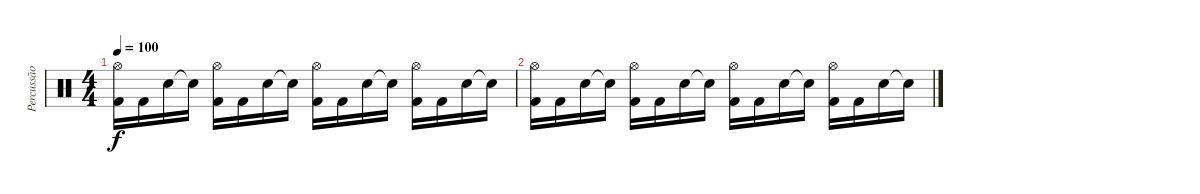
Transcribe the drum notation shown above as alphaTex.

\track ("Percussão" "Percussão") {instrument percussion}
\staff {score}
\articulation defaults
\ts (4 4)
\tempo 100
\clef neutral
\ks c
("Kick (hit) 2" "Hi-Hat (open)").16{dy f} "Kick (hit) 2".16 "Electric Snare (hit)".16 "Snare (hit)"{t}.16 ("Kick (hit) 2" "Hi-Hat (open)").16 "Kick (hit) 2".16 "Electric Snare (hit)".16 "Snare (hit)"{t}.16 ("Kick (hit) 2" "Hi-Hat (open)").16 "Kick (hit) 2".16 "Electric Snare (hit)".16 "Snare (hit)"{t}.16 ("Kick (hit) 2" "Hi-Hat (open)").16 "Kick (hit) 2".16 "Electric Snare (hit)".16 "Snare (hit)"{t}.16 |
("Kick (hit) 2" "Hi-Hat (open)").16 "Kick (hit) 2".16 "Electric Snare (hit)".16 "Snare (hit)"{t}.16 ("Kick (hit) 2" "Hi-Hat (open)").16 "Kick (hit) 2".16 "Electric Snare (hit)".16 "Snare (hit)"{t}.16 ("Kick (hit) 2" "Hi-Hat (open)").16 "Kick (hit) 2".16 "Electric Snare (hit)".16 "Snare (hit)"{t}.16 ("Kick (hit) 2" "Hi-Hat (open)").16 "Kick (hit) 2".16 "Electric Snare (hit)".16 "Snare (hit)"{t}.16
